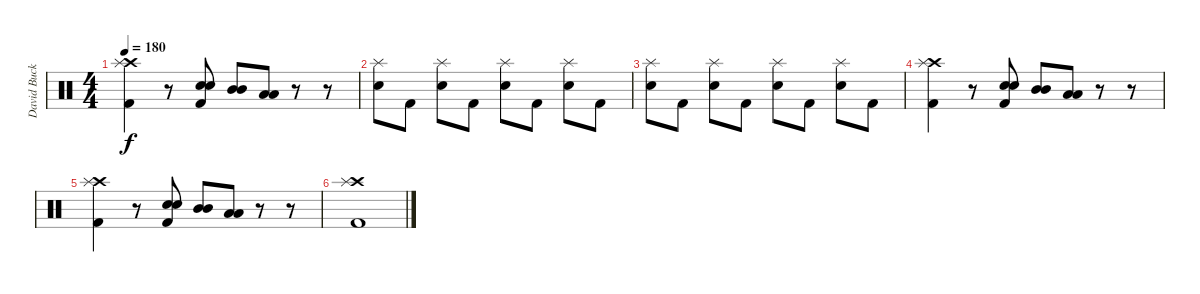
\track ("David Buckner" "David Buck") {instrument percussion}
\staff {score}
\articulation defaults
\ts (4 4)
\tempo 180
\clef neutral
\ks c
("Crash high (hit)" "Splash (hit)" "Kick (hit) 2").4{dy f} r.8 ("Snare (hit) 2" "Snare (hit) 2" "Kick (hit) 2").8 ("Mid Tom (hit)" "Mid Tom (hit)").8 ("Low Tom (hit)" "Low Tom (hit)").8 r.8 r.8 |
("Splash (hit)" "Snare (hit) 2").8 "Kick (hit) 2".8 ("Splash (hit)" "Snare (hit) 2").8 "Kick (hit) 2".8 ("Splash (hit)" "Snare (hit) 2").8 "Kick (hit) 2".8 ("Splash (hit)" "Snare (hit) 2").8 "Kick (hit) 2".8 |
("Splash (hit)" "Snare (hit) 2").8 "Kick (hit) 2".8 ("Splash (hit)" "Snare (hit) 2").8 "Kick (hit) 2".8 ("Splash (hit)" "Snare (hit) 2").8 "Kick (hit) 2".8 ("Splash (hit)" "Snare (hit) 2").8 "Kick (hit) 2".8 |
("Crash high (hit)" "Splash (hit)" "Kick (hit) 2").4 r.8 ("Snare (hit) 2" "Snare (hit) 2" "Kick (hit) 2").8 ("Mid Tom (hit)" "Mid Tom (hit)").8 ("Low Tom (hit)" "Low Tom (hit)").8 r.8 r.8 |
("Crash high (hit)" "Splash (hit)" "Kick (hit) 2").4 r.8 ("Snare (hit) 2" "Snare (hit) 2" "Kick (hit) 2").8 ("Mid Tom (hit)" "Mid Tom (hit)").8 ("Low Tom (hit)" "Low Tom (hit)").8 r.8 r.8 |
("Crash high (hit)" "Splash (hit)" "Kick (hit) 2").1
